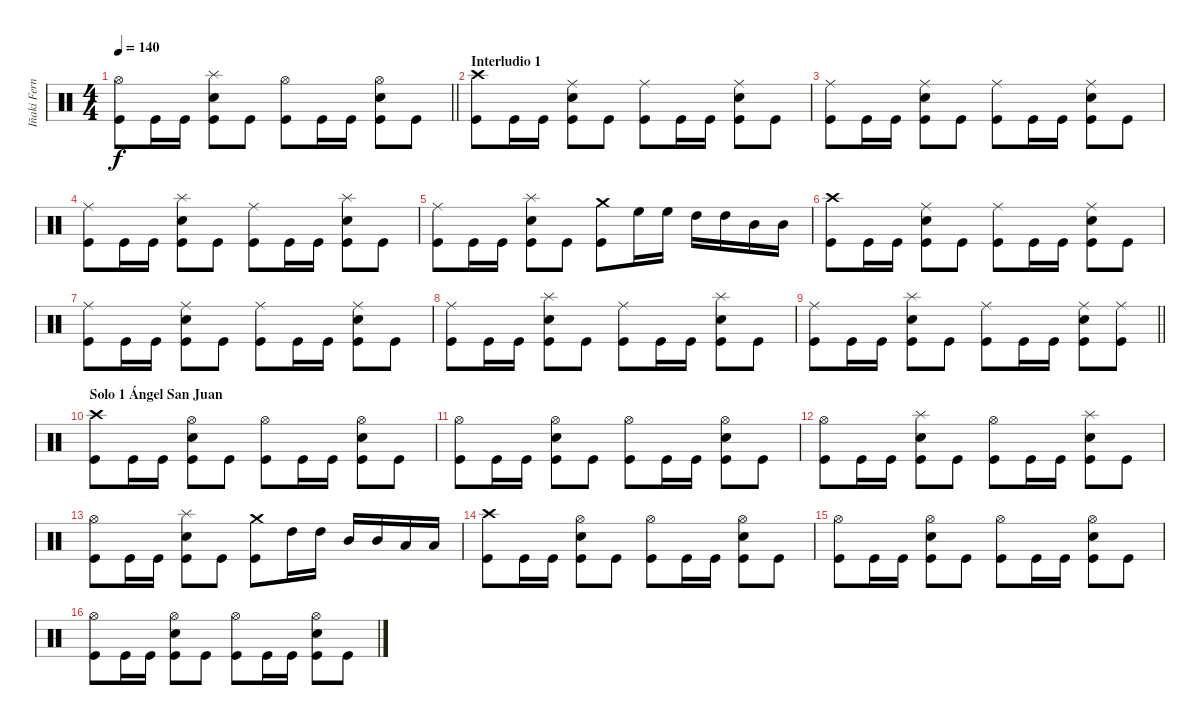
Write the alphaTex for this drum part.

\track ("Iñaki Fernández" "Iñaki Fern") {instrument percussion}
\staff {score}
\articulation defaults
\ts (4 4)
\tempo 140
\clef neutral
\barLineRight lightlight
\ks c
("Hi-Hat (open)" "Kick (hit)").8{dy f} "Kick (hit)".16 "Kick (hit)".16 ("Snare (hit) 2" "Splash (hit)" "Kick (hit)").8 "Kick (hit)".8 ("Hi-Hat (open)" "Kick (hit)").8 "Kick (hit)".16 "Kick (hit)".16 ("Hi-Hat (open)" "Snare (hit) 2" "Kick (hit)").8 "Kick (hit)".8 |
\section ("" "Interludio 1")
("Crash high (hit)" "Kick (hit)").8 "Kick (hit)".16 "Kick (hit)".16 ("Ride (middle)" "Snare (hit) 2" "Kick (hit)").8 "Kick (hit)".8 ("Ride (middle)" "Kick (hit)").8 "Kick (hit)".16 "Kick (hit)".16 ("Ride (middle)" "Snare (hit) 2" "Kick (hit)").8 "Kick (hit)".8 |
("Ride (middle)" "Kick (hit)").8 "Kick (hit)".16 "Kick (hit)".16 ("Ride (middle)" "Snare (hit) 2" "Kick (hit)").8 "Kick (hit)".8 ("Ride (middle)" "Kick (hit)").8 "Kick (hit)".16 "Kick (hit)".16 ("Ride (middle)" "Snare (hit) 2" "Kick (hit)").8 "Kick (hit)".8 |
("Ride (middle)" "Kick (hit)").8 "Kick (hit)".16 "Kick (hit)".16 ("Snare (hit) 2" "Splash (hit)" "Kick (hit)").8 "Kick (hit)".8 ("Ride (middle)" "Kick (hit)").8 "Kick (hit)".16 "Kick (hit)".16 ("Snare (hit) 2" "Splash (hit)" "Kick (hit)").8 "Kick (hit)".8 |
("Ride (middle)" "Kick (hit)").8 "Kick (hit)".16 "Kick (hit)".16 ("Snare (hit) 2" "Splash (hit)" "Kick (hit)").8 "Kick (hit)".8 ("Crash medium (hit)" "Kick (hit)").8 "High Floor Tom (hit)".16 "High Floor Tom (hit)".16 "High Tom (hit)".16 "High Tom (hit)".16 "Mid Tom (hit)".16 "Mid Tom (hit)".16 |
("Crash high (hit)" "Kick (hit)").8 "Kick (hit)".16 "Kick (hit)".16 ("Ride (middle)" "Snare (hit) 2" "Kick (hit)").8 "Kick (hit)".8 ("Ride (middle)" "Kick (hit)").8 "Kick (hit)".16 "Kick (hit)".16 ("Ride (middle)" "Snare (hit) 2" "Kick (hit)").8 "Kick (hit)".8 |
("Ride (middle)" "Kick (hit)").8 "Kick (hit)".16 "Kick (hit)".16 ("Ride (middle)" "Snare (hit) 2" "Kick (hit)").8 "Kick (hit)".8 ("Ride (middle)" "Kick (hit)").8 "Kick (hit)".16 "Kick (hit)".16 ("Ride (middle)" "Snare (hit) 2" "Kick (hit)").8 "Kick (hit)".8 |
("Ride (middle)" "Kick (hit)").8 "Kick (hit)".16 "Kick (hit)".16 ("Snare (hit) 2" "Splash (hit)" "Kick (hit)").8 "Kick (hit)".8 ("Ride (middle)" "Kick (hit)").8 "Kick (hit)".16 "Kick (hit)".16 ("Snare (hit) 2" "Splash (hit)" "Kick (hit)").8 "Kick (hit)".8 |
\barLineRight lightlight
("Ride (middle)" "Kick (hit)").8 "Kick (hit)".16 "Kick (hit)".16 ("Snare (hit) 2" "Splash (hit)" "Kick (hit)").8 "Kick (hit)".8 ("Ride (middle)" "Kick (hit)").8 "Kick (hit)".16 "Kick (hit)".16 ("Ride (middle)" "Snare (hit) 2" "Kick (hit)").8 ("Ride (middle)" "Kick (hit)").8 |
\section ("" "Solo 1 Ángel San Juan")
("Crash high (hit)" "Kick (hit)").8 "Kick (hit)".16 "Kick (hit)".16 ("Hi-Hat (open)" "Snare (hit) 2" "Kick (hit)").8 "Kick (hit)".8 ("Hi-Hat (open)" "Kick (hit)").8 "Kick (hit)".16 "Kick (hit)".16 ("Hi-Hat (open)" "Snare (hit) 2" "Kick (hit)").8 "Kick (hit)".8 |
("Hi-Hat (open)" "Kick (hit)").8 "Kick (hit)".16 "Kick (hit)".16 ("Hi-Hat (open)" "Snare (hit) 2" "Kick (hit)").8 "Kick (hit)".8 ("Hi-Hat (open)" "Kick (hit)").8 "Kick (hit)".16 "Kick (hit)".16 ("Hi-Hat (open)" "Snare (hit) 2" "Kick (hit)").8 "Kick (hit)".8 |
("Hi-Hat (open)" "Kick (hit)").8 "Kick (hit)".16 "Kick (hit)".16 ("Snare (hit) 2" "Splash (hit)" "Kick (hit)").8 "Kick (hit)".8 ("Hi-Hat (open)" "Kick (hit)").8 "Kick (hit)".16 "Kick (hit)".16 ("Snare (hit) 2" "Splash (hit)" "Kick (hit)").8 "Kick (hit)".8 |
("Hi-Hat (open)" "Kick (hit)").8 "Kick (hit)".16 "Kick (hit)".16 ("Snare (hit) 2" "Splash (hit)" "Kick (hit)").8 "Kick (hit)".8 ("Crash medium (hit)" "Kick (hit)").8 "High Tom (hit)".16 "High Tom (hit)".16 "Mid Tom (hit)".16 "Mid Tom (hit)".16 "Low Tom (hit)".16 "Low Tom (hit)".16 |
("Crash high (hit)" "Kick (hit)").8 "Kick (hit)".16 "Kick (hit)".16 ("Hi-Hat (open)" "Snare (hit) 2" "Kick (hit)").8 "Kick (hit)".8 ("Hi-Hat (open)" "Kick (hit)").8 "Kick (hit)".16 "Kick (hit)".16 ("Hi-Hat (open)" "Snare (hit) 2" "Kick (hit)").8 "Kick (hit)".8 |
("Hi-Hat (open)" "Kick (hit)").8 "Kick (hit)".16 "Kick (hit)".16 ("Hi-Hat (open)" "Snare (hit) 2" "Kick (hit)").8 "Kick (hit)".8 ("Hi-Hat (open)" "Kick (hit)").8 "Kick (hit)".16 "Kick (hit)".16 ("Hi-Hat (open)" "Snare (hit) 2" "Kick (hit)").8 "Kick (hit)".8 |
("Hi-Hat (open)" "Kick (hit)").8 "Kick (hit)".16 "Kick (hit)".16 ("Hi-Hat (open)" "Snare (hit) 2" "Kick (hit)").8 "Kick (hit)".8 ("Hi-Hat (open)" "Kick (hit)").8 "Kick (hit)".16 "Kick (hit)".16 ("Hi-Hat (open)" "Snare (hit) 2" "Kick (hit)").8 "Kick (hit)".8
